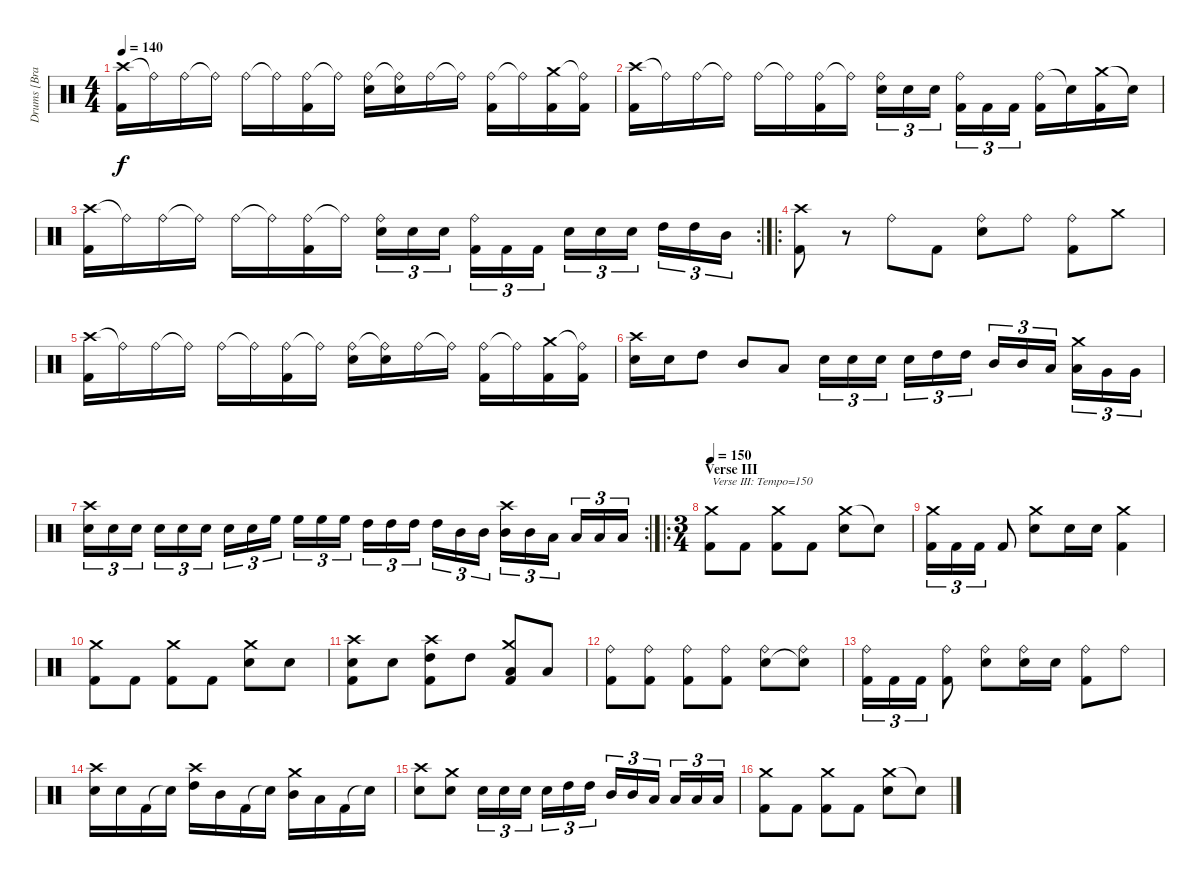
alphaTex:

\track ("Drums [Bran Dailor]" "Drums [Bra") {instrument percussion}
\staff {score}
\articulation defaults
\ts (4 4)
\tempo 140
\clef neutral
\ks c
("Crash high (hit)" "Kick (hit) 2").16{dy f} "Ride (bell)"{t}.16 "Ride (bell)".16 "Ride (bell)"{t}.16 "Ride (bell)".16 "Ride (bell)"{t}.16 ("Ride (bell)" "Kick (hit) 2").16 "Ride (bell)"{t}.16 ("Ride (bell)" "Electric Snare (hit)").16 ("Ride (bell)"{t} "Electric Snare (hit)").16 "Ride (bell)".16 "Ride (bell)"{t}.16 ("Ride (bell)" "Kick (hit) 2").16 "Ride (bell)"{t}.16 ("Crash medium (hit)" "Kick (hit) 2").16 ("Ride (bell)"{t} "Kick (hit) 2").16 |
("Crash high (hit)" "Kick (hit) 2").16 "Ride (bell)"{t}.16 "Ride (bell)".16 "Ride (bell)"{t}.16 "Ride (bell)".16 "Ride (bell)"{t}.16 ("Ride (bell)" "Kick (hit) 2").16 "Ride (bell)"{t}.16 ("Ride (bell)" "Electric Snare (hit)").16{tu (3 2)} "Electric Snare (hit)".16{tu (3 2)} "Electric Snare (hit)".16{tu (3 2)} ("Ride (bell)" "Kick (hit) 2").16{tu (3 2)} "Kick (hit) 2".16{tu (3 2)} "Kick (hit) 2".16{tu (3 2)} ("Ride (bell)" "Kick (hit) 2").16 "Snare (hit)"{t}.16 ("Crash medium (hit)" "Kick (hit) 2").16 "Snare (hit)"{t}.16 |
\rc 2
("Crash high (hit)" "Kick (hit) 2").16 "Ride (bell)"{t}.16 "Ride (bell)".16 "Ride (bell)"{t}.16 "Ride (bell)".16 "Ride (bell)"{t}.16 ("Ride (bell)" "Kick (hit) 2").16 "Ride (bell)"{t}.16 ("Ride (bell)" "Electric Snare (hit)").16{tu (3 2)} "Electric Snare (hit)".16{tu (3 2)} "Electric Snare (hit)".16{tu (3 2)} ("Ride (bell)" "Kick (hit) 2").16{tu (3 2)} "Kick (hit) 2".16{tu (3 2)} "Kick (hit) 2".16{tu (3 2)} "Electric Snare (hit)".16{tu (3 2)} "Electric Snare (hit)".16{tu (3 2)} "Electric Snare (hit)".16{tu (3 2)} "High Tom (hit)".16{tu (3 2)} "High Tom (hit)".16{tu (3 2)} "Mid Tom (hit)".16{tu (3 2)} |
\ro
("Crash high (hit)" "Kick (hit) 2").8 r.8 "Ride (bell)".8 "Kick (hit) 2".8 ("Ride (bell)" "Electric Snare (hit)").8 "Ride (bell)".8 ("Ride (bell)" "Kick (hit) 2").8 "Crash medium (hit)".8 |
("Crash high (hit)" "Kick (hit) 2").16 "Ride (bell)"{t}.16 "Ride (bell)".16 "Ride (bell)"{t}.16 "Ride (bell)".16 "Ride (bell)"{t}.16 ("Ride (bell)" "Kick (hit) 2").16 "Ride (bell)"{t}.16 ("Ride (bell)" "Electric Snare (hit)").16 ("Ride (bell)"{t} "Electric Snare (hit)").16 "Ride (bell)".16 "Ride (bell)"{t}.16 ("Ride (bell)" "Kick (hit) 2").16 "Ride (bell)"{t}.16 ("Crash medium (hit)" "Kick (hit) 2").16 ("Ride (bell)"{t} "Kick (hit) 2").16 |
("Crash high (hit)" "Electric Snare (hit)").16 "Electric Snare (hit)".16 "High Tom (hit)".8 "Mid Tom (hit)".8 "Low Tom (hit)".8 "Electric Snare (hit)".16{tu (3 2)} "Electric Snare (hit)".16{tu (3 2)} "Electric Snare (hit)".16{tu (3 2)} "Electric Snare (hit)".16{tu (3 2)} "High Tom (hit)".16{tu (3 2)} "High Tom (hit)".16{tu (3 2)} "Mid Tom (hit)".16{tu (3 2)} "Mid Tom (hit)".16{tu (3 2)} "Low Tom (hit)".16{tu (3 2)} ("Crash medium (hit)" "Low Tom (hit)").16{tu (3 2)} "Very Low Tom (hit)".16{tu (3 2)} "Very Low Tom (hit)".16{tu (3 2)} |
\rc 2
("Crash high (hit)" "Electric Snare (hit)").16{tu (3 2)} "Electric Snare (hit)".16{tu (3 2)} "Electric Snare (hit)".16{tu (3 2)} "Electric Snare (hit)".16{tu (3 2)} "Electric Snare (hit)".16{tu (3 2)} "Electric Snare (hit)".16{tu (3 2)} "Electric Snare (hit)".16{tu (3 2)} "Electric Snare (hit)".16{tu (3 2)} "High Floor Tom (hit)".16{tu (3 2)} "High Floor Tom (hit)".16{tu (3 2)} "High Floor Tom (hit)".16{tu (3 2)} "High Floor Tom (hit)".16{tu (3 2)} "High Tom (hit)".16{tu (3 2)} "High Tom (hit)".16{tu (3 2)} "High Tom (hit)".16{tu (3 2)} "High Tom (hit)".16{tu (3 2)} "Mid Tom (hit)".16{tu (3 2)} "Mid Tom (hit)".16{tu (3 2)} ("Crash high (hit)" "Mid Tom (hit)").16{tu (3 2)} "Mid Tom (hit)".16{tu (3 2)} "Low Tom (hit)".16{tu (3 2)} "Low Tom (hit)".16{tu (3 2)} "Low Tom (hit)".16{tu (3 2)} "Low Tom (hit)".16{tu (3 2)} |
\ro
\ts (3 4)
\section ("" "Verse III")
\tempo 150
("Crash medium (hit)" "Kick (hit) 2").8{txt "Verse III: Tempo=150"} "Kick (hit) 2".8 ("Crash medium (hit)" "Kick (hit) 2").8 "Kick (hit) 2".8 ("Crash medium (hit)" "Electric Snare (hit)").8 "Snare (hit)"{t}.8 |
("Crash medium (hit)" "Kick (hit) 2").16{tu (3 2)} "Kick (hit) 2".16{tu (3 2)} "Kick (hit) 2".16{tu (3 2)} "Kick (hit) 2".8 ("Crash medium (hit)" "Electric Snare (hit)").8 "Electric Snare (hit)".16 "Electric Snare (hit)".16 ("Crash medium (hit)" "Kick (hit) 2").4 |
("Crash medium (hit)" "Kick (hit) 2").8 "Kick (hit) 2".8 ("Crash medium (hit)" "Kick (hit) 2").8 "Kick (hit) 2".8 ("Crash medium (hit)" "Electric Snare (hit)").8 "Electric Snare (hit)".8 |
("Crash high (hit)" "Electric Snare (hit)" "Kick (hit) 2").8 "Electric Snare (hit)".8 ("Crash high (hit)" "High Tom (hit)" "Kick (hit) 2").8 "High Tom (hit)".8 ("Crash medium (hit)" "Low Tom (hit)" "Kick (hit) 2").8 "Low Tom (hit)".8 |
("Ride (bell)" "Kick (hit) 2").8 ("Ride (bell)" "Kick (hit) 2").8 ("Ride (bell)" "Kick (hit) 2").8 ("Ride (bell)" "Kick (hit) 2").8 ("Ride (bell)" "Electric Snare (hit)").8 ("Ride (bell)" "Snare (hit)"{t}).8 |
("Ride (bell)" "Kick (hit) 2").16{tu (3 2)} "Kick (hit) 2".16{tu (3 2)} "Kick (hit) 2".16{tu (3 2)} ("Ride (bell)" "Kick (hit) 2").8 ("Ride (bell)" "Electric Snare (hit)").8 ("Ride (bell)" "Electric Snare (hit)").16 "Electric Snare (hit)".16 ("Ride (bell)" "Kick (hit) 2").8 "Ride (bell)".8 |
("Crash high (hit)" "Electric Snare (hit)").16 "Electric Snare (hit)".16 "Kick (hit) 2".16 "Snare (hit)"{t}.16 ("Crash high (hit)" "High Tom (hit)").16 "Mid Tom (hit)".16 "Kick (hit) 2".16 "Snare (hit)"{t}.16 ("Crash medium (hit)" "Mid Tom (hit)").16 "Low Tom (hit)".16 "Kick (hit) 2".16 "Snare (hit)"{t}.16 |
("Crash high (hit)" "Electric Snare (hit)").8 ("Crash medium (hit)" "Electric Snare (hit)").8 "Electric Snare (hit)".16{tu (3 2)} "Electric Snare (hit)".16{tu (3 2)} "Electric Snare (hit)".16{tu (3 2)} "Electric Snare (hit)".16{tu (3 2)} "High Tom (hit)".16{tu (3 2)} "High Tom (hit)".16{tu (3 2)} "Mid Tom (hit)".16{tu (3 2)} "Mid Tom (hit)".16{tu (3 2)} "Low Tom (hit)".16{tu (3 2)} "Low Tom (hit)".16{tu (3 2)} "Low Tom (hit)".16{tu (3 2)} "Low Tom (hit)".16{tu (3 2)} |
("Crash medium (hit)" "Kick (hit) 2").8 "Kick (hit) 2".8 ("Crash medium (hit)" "Kick (hit) 2").8 "Kick (hit) 2".8 ("Crash medium (hit)" "Electric Snare (hit)").8 "Snare (hit)"{t}.8
